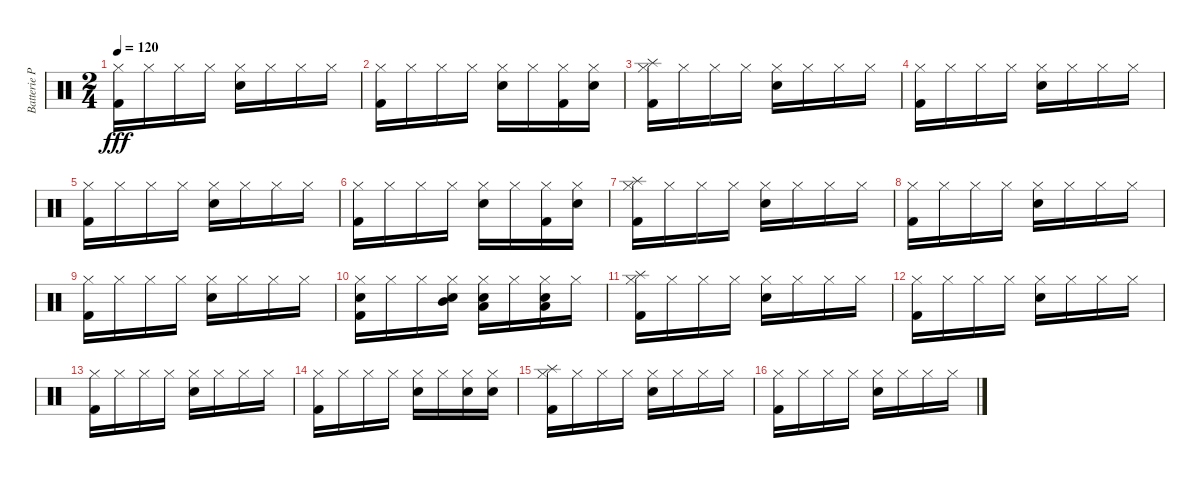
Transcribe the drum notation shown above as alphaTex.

\track ("Batterie Pako" "Batterie P") {instrument percussion}
\staff {score}
\articulation defaults
\ts (2 4)
\tempo 120
\clef neutral
\ks c
("Kick (hit) 2" "Hi-Hat (closed)").16{dy fff} "Hi-Hat (closed)".16 "Hi-Hat (closed)".16 "Hi-Hat (closed)".16 ("Hi-Hat (closed)" "Electric Snare (hit)").16 "Hi-Hat (closed)".16 "Hi-Hat (closed)".16 "Hi-Hat (closed)".16 |
("Kick (hit) 2" "Hi-Hat (closed)").16 "Hi-Hat (closed)".16 "Hi-Hat (closed)".16 "Hi-Hat (closed)".16 ("Electric Snare (hit)" "Hi-Hat (closed)").16 "Hi-Hat (closed)".16 ("Kick (hit) 2" "Hi-Hat (closed)").16 ("Electric Snare (hit)" "Hi-Hat (closed)").16 |
("Kick (hit) 2" "Hi-Hat (closed)" "Splash (hit)").16 "Hi-Hat (closed)".16 "Hi-Hat (closed)".16 "Hi-Hat (closed)".16 ("Hi-Hat (closed)" "Electric Snare (hit)").16 "Hi-Hat (closed)".16 "Hi-Hat (closed)".16 "Hi-Hat (closed)".16 |
("Kick (hit) 2" "Hi-Hat (closed)").16 "Hi-Hat (closed)".16 "Hi-Hat (closed)".16 "Hi-Hat (closed)".16 ("Hi-Hat (closed)" "Electric Snare (hit)").16 "Hi-Hat (closed)".16 "Hi-Hat (closed)".16 "Hi-Hat (closed)".16 |
("Kick (hit) 2" "Hi-Hat (closed)").16 "Hi-Hat (closed)".16 "Hi-Hat (closed)".16 "Hi-Hat (closed)".16 ("Hi-Hat (closed)" "Electric Snare (hit)").16 "Hi-Hat (closed)".16 "Hi-Hat (closed)".16 "Hi-Hat (closed)".16 |
("Kick (hit) 2" "Hi-Hat (closed)").16 "Hi-Hat (closed)".16 "Hi-Hat (closed)".16 "Hi-Hat (closed)".16 ("Electric Snare (hit)" "Hi-Hat (closed)").16 "Hi-Hat (closed)".16 ("Kick (hit) 2" "Hi-Hat (closed)").16 ("Electric Snare (hit)" "Hi-Hat (closed)").16 |
("Kick (hit) 2" "Hi-Hat (closed)" "Splash (hit)").16 "Hi-Hat (closed)".16 "Hi-Hat (closed)".16 "Hi-Hat (closed)".16 ("Hi-Hat (closed)" "Electric Snare (hit)").16 "Hi-Hat (closed)".16 "Hi-Hat (closed)".16 "Hi-Hat (closed)".16 |
("Kick (hit) 2" "Hi-Hat (closed)").16 "Hi-Hat (closed)".16 "Hi-Hat (closed)".16 "Hi-Hat (closed)".16 ("Hi-Hat (closed)" "Electric Snare (hit)").16 "Hi-Hat (closed)".16 "Hi-Hat (closed)".16 "Hi-Hat (closed)".16 |
("Kick (hit) 2" "Hi-Hat (closed)").16 "Hi-Hat (closed)".16 "Hi-Hat (closed)".16 "Hi-Hat (closed)".16 ("Hi-Hat (closed)" "Electric Snare (hit)").16 "Hi-Hat (closed)".16 "Hi-Hat (closed)".16 "Hi-Hat (closed)".16 |
("Kick (hit) 2" "Hi-Hat (closed)" "Electric Snare (hit)").16 "Hi-Hat (closed)".16 "Hi-Hat (closed)".16 ("Mid Tom (hit)" "Electric Snare (hit)" "Hi-Hat (closed)").16 ("Low Tom (hit)" "Electric Snare (hit)" "Hi-Hat (closed)").16 "Hi-Hat (closed)".16 ("Low Tom (hit)" "Hi-Hat (closed)" "Electric Snare (hit)").16 "Hi-Hat (closed)".16 |
("Kick (hit) 2" "Hi-Hat (closed)" "Splash (hit)").16 "Hi-Hat (closed)".16 "Hi-Hat (closed)".16 "Hi-Hat (closed)".16 ("Hi-Hat (closed)" "Electric Snare (hit)").16 "Hi-Hat (closed)".16 "Hi-Hat (closed)".16 "Hi-Hat (closed)".16 |
("Kick (hit) 2" "Hi-Hat (closed)").16 "Hi-Hat (closed)".16 "Hi-Hat (closed)".16 "Hi-Hat (closed)".16 ("Hi-Hat (closed)" "Electric Snare (hit)").16 "Hi-Hat (closed)".16 "Hi-Hat (closed)".16 "Hi-Hat (closed)".16 |
("Kick (hit) 2" "Hi-Hat (closed)").16 "Hi-Hat (closed)".16 "Hi-Hat (closed)".16 "Hi-Hat (closed)".16 ("Hi-Hat (closed)" "Electric Snare (hit)").16 "Hi-Hat (closed)".16 "Hi-Hat (closed)".16 "Hi-Hat (closed)".16 |
("Kick (hit) 2" "Hi-Hat (closed)").16 "Hi-Hat (closed)".16 "Hi-Hat (closed)".16 "Hi-Hat (closed)".16 ("Electric Snare (hit)" "Hi-Hat (closed)").16 "Hi-Hat (closed)".16 ("Electric Snare (hit)" "Hi-Hat (closed)").16 ("Electric Snare (hit)" "Hi-Hat (closed)").16 |
("Kick (hit) 2" "Hi-Hat (closed)" "Splash (hit)").16 "Hi-Hat (closed)".16 "Hi-Hat (closed)".16 "Hi-Hat (closed)".16 ("Hi-Hat (closed)" "Electric Snare (hit)").16 "Hi-Hat (closed)".16 "Hi-Hat (closed)".16 "Hi-Hat (closed)".16 |
("Kick (hit) 2" "Hi-Hat (closed)").16 "Hi-Hat (closed)".16 "Hi-Hat (closed)".16 "Hi-Hat (closed)".16 ("Hi-Hat (closed)" "Electric Snare (hit)").16 "Hi-Hat (closed)".16 "Hi-Hat (closed)".16 "Hi-Hat (closed)".16
